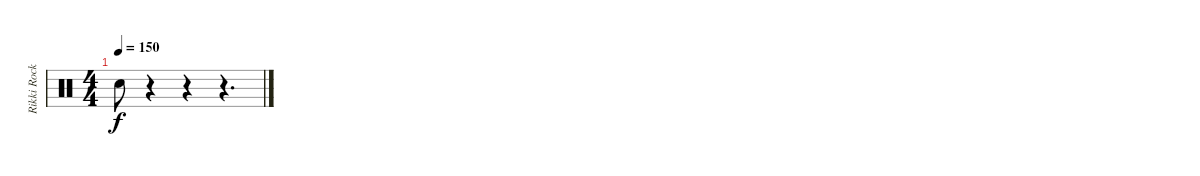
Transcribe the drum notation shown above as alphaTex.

\track ("Rikki Rockett - Drums" "Rikki Rock") {instrument percussion}
\staff {score}
\articulation defaults
\ts (4 4)
\tempo 150
\clef neutral
\ks c "Snare (hit)"{t}.8{dy f}
r.4 r.4 r.4{d}
